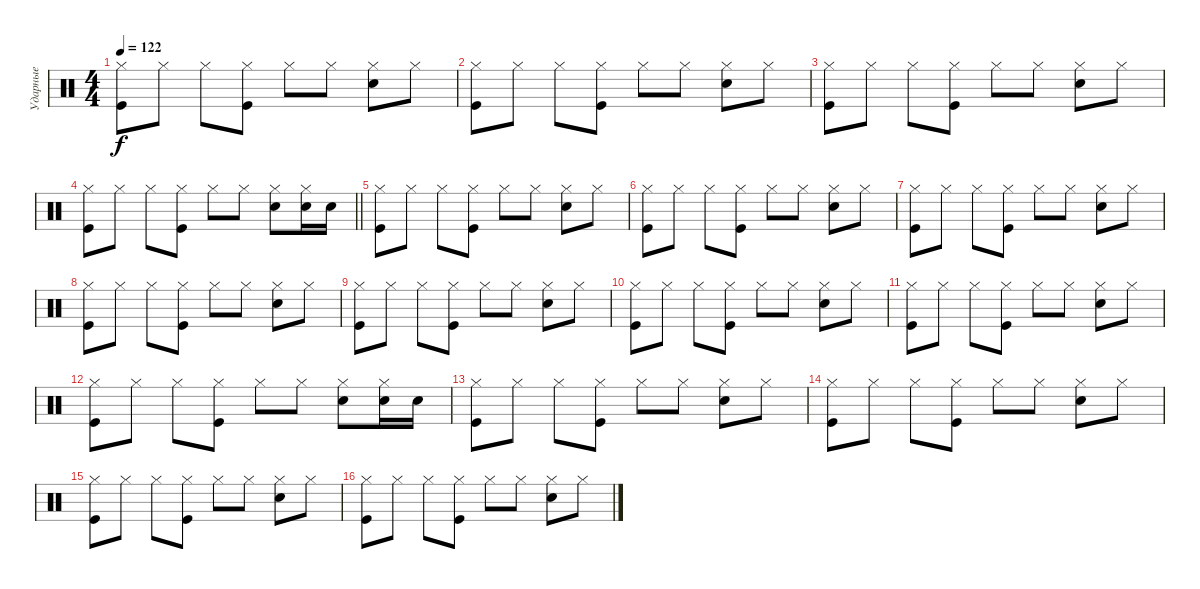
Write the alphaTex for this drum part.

\track ("Ударные" "Ударные") {instrument percussion}
\staff {score}
\articulation defaults
\ts (4 4)
\tempo 122
\clef neutral
\ks c
("Hi-Hat (closed)" "Kick (hit)").8{dy f} "Hi-Hat (closed)".8 "Hi-Hat (closed)".8 ("Kick (hit)" "Hi-Hat (closed)").8 "Hi-Hat (closed)".8 "Hi-Hat (closed)".8 ("Electric Snare (hit)" "Hi-Hat (closed)").8 "Hi-Hat (closed)".8 |
("Hi-Hat (closed)" "Kick (hit)").8 "Hi-Hat (closed)".8 "Hi-Hat (closed)".8 ("Kick (hit)" "Hi-Hat (closed)").8 "Hi-Hat (closed)".8 "Hi-Hat (closed)".8 ("Electric Snare (hit)" "Hi-Hat (closed)").8 "Hi-Hat (closed)".8 |
("Hi-Hat (closed)" "Kick (hit)").8 "Hi-Hat (closed)".8 "Hi-Hat (closed)".8 ("Kick (hit)" "Hi-Hat (closed)").8 "Hi-Hat (closed)".8 "Hi-Hat (closed)".8 ("Electric Snare (hit)" "Hi-Hat (closed)").8 "Hi-Hat (closed)".8 |
\barLineRight lightlight
("Hi-Hat (closed)" "Kick (hit)").8 "Hi-Hat (closed)".8 "Hi-Hat (closed)".8 ("Kick (hit)" "Hi-Hat (closed)").8 "Hi-Hat (closed)".8 "Hi-Hat (closed)".8 ("Electric Snare (hit)" "Hi-Hat (closed)").8 ("Electric Snare (hit)" "Hi-Hat (closed)").16 "Electric Snare (hit)".16 |
\section ("" "")
("Hi-Hat (closed)" "Kick (hit)").8 "Hi-Hat (closed)".8 "Hi-Hat (closed)".8 ("Kick (hit)" "Hi-Hat (closed)").8 "Hi-Hat (closed)".8 "Hi-Hat (closed)".8 ("Electric Snare (hit)" "Hi-Hat (closed)").8 "Hi-Hat (closed)".8 |
("Hi-Hat (closed)" "Kick (hit)").8 "Hi-Hat (closed)".8 "Hi-Hat (closed)".8 ("Kick (hit)" "Hi-Hat (closed)").8 "Hi-Hat (closed)".8 "Hi-Hat (closed)".8 ("Electric Snare (hit)" "Hi-Hat (closed)").8 "Hi-Hat (closed)".8 |
("Hi-Hat (closed)" "Kick (hit)").8 "Hi-Hat (closed)".8 "Hi-Hat (closed)".8 ("Kick (hit)" "Hi-Hat (closed)").8 "Hi-Hat (closed)".8 "Hi-Hat (closed)".8 ("Electric Snare (hit)" "Hi-Hat (closed)").8 "Hi-Hat (closed)".8 |
("Hi-Hat (closed)" "Kick (hit)").8 "Hi-Hat (closed)".8 "Hi-Hat (closed)".8 ("Kick (hit)" "Hi-Hat (closed)").8 "Hi-Hat (closed)".8 "Hi-Hat (closed)".8 ("Electric Snare (hit)" "Hi-Hat (closed)").8 "Hi-Hat (closed)".8 |
("Hi-Hat (closed)" "Kick (hit)").8 "Hi-Hat (closed)".8 "Hi-Hat (closed)".8 ("Kick (hit)" "Hi-Hat (closed)").8 "Hi-Hat (closed)".8 "Hi-Hat (closed)".8 ("Electric Snare (hit)" "Hi-Hat (closed)").8 "Hi-Hat (closed)".8 |
("Hi-Hat (closed)" "Kick (hit)").8 "Hi-Hat (closed)".8 "Hi-Hat (closed)".8 ("Kick (hit)" "Hi-Hat (closed)").8 "Hi-Hat (closed)".8 "Hi-Hat (closed)".8 ("Electric Snare (hit)" "Hi-Hat (closed)").8 "Hi-Hat (closed)".8 |
("Hi-Hat (closed)" "Kick (hit)").8 "Hi-Hat (closed)".8 "Hi-Hat (closed)".8 ("Kick (hit)" "Hi-Hat (closed)").8 "Hi-Hat (closed)".8 "Hi-Hat (closed)".8 ("Electric Snare (hit)" "Hi-Hat (closed)").8 "Hi-Hat (closed)".8 |
("Hi-Hat (closed)" "Kick (hit)").8 "Hi-Hat (closed)".8 "Hi-Hat (closed)".8 ("Kick (hit)" "Hi-Hat (closed)").8 "Hi-Hat (closed)".8 "Hi-Hat (closed)".8 ("Electric Snare (hit)" "Hi-Hat (closed)").8 ("Electric Snare (hit)" "Hi-Hat (closed)").16 "Electric Snare (hit)".16 |
("Hi-Hat (closed)" "Kick (hit)").8 "Hi-Hat (closed)".8 "Hi-Hat (closed)".8 ("Kick (hit)" "Hi-Hat (closed)").8 "Hi-Hat (closed)".8 "Hi-Hat (closed)".8 ("Electric Snare (hit)" "Hi-Hat (closed)").8 "Hi-Hat (closed)".8 |
("Hi-Hat (closed)" "Kick (hit)").8 "Hi-Hat (closed)".8 "Hi-Hat (closed)".8 ("Kick (hit)" "Hi-Hat (closed)").8 "Hi-Hat (closed)".8 "Hi-Hat (closed)".8 ("Electric Snare (hit)" "Hi-Hat (closed)").8 "Hi-Hat (closed)".8 |
("Hi-Hat (closed)" "Kick (hit)").8 "Hi-Hat (closed)".8 "Hi-Hat (closed)".8 ("Kick (hit)" "Hi-Hat (closed)").8 "Hi-Hat (closed)".8 "Hi-Hat (closed)".8 ("Electric Snare (hit)" "Hi-Hat (closed)").8 "Hi-Hat (closed)".8 |
("Hi-Hat (closed)" "Kick (hit)").8 "Hi-Hat (closed)".8 "Hi-Hat (closed)".8 ("Kick (hit)" "Hi-Hat (closed)").8 "Hi-Hat (closed)".8 "Hi-Hat (closed)".8 ("Electric Snare (hit)" "Hi-Hat (closed)").8 "Hi-Hat (closed)".8
